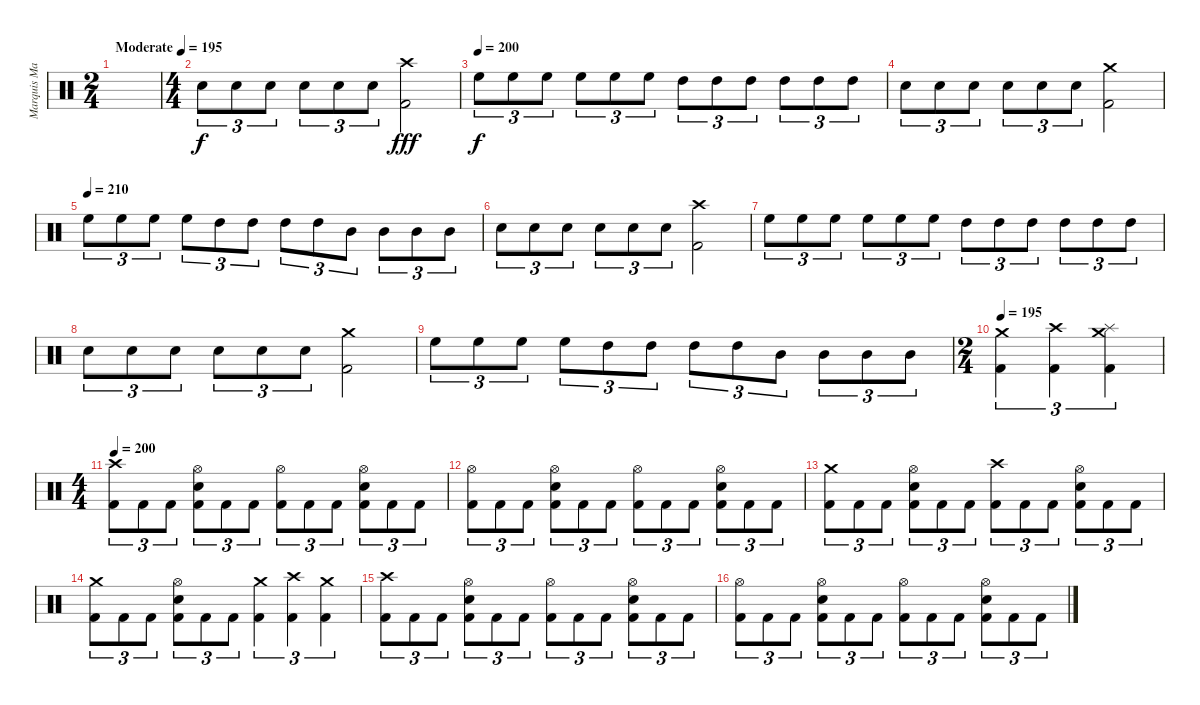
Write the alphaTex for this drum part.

\track ("Marquis Marky (DRUMS)" "Marquis Ma") {instrument percussion}
\staff {score}
\articulation defaults
\ts (2 4)
\tempo (195 "Moderate")
\clef neutral
\ks c
|
\ts (4 4)
"Snare (hit) 2".8{tu (3 2)} "Snare (hit) 2".8{tu (3 2)} "Snare (hit) 2".8{tu (3 2)} "Snare (hit) 2".8{tu (3 2)} "Snare (hit) 2".8{tu (3 2)} "Snare (hit) 2".8{tu (3 2)} ("Crash high (hit)" "Kick (hit) 2").2{dy fff} |
\tempo (200)
"High Floor Tom (hit)".8{tu (3 2) dy f} "High Floor Tom (hit)".8{tu (3 2)} "High Floor Tom (hit)".8{tu (3 2)} "High Floor Tom (hit)".8{tu (3 2)} "High Floor Tom (hit)".8{tu (3 2)} "High Floor Tom (hit)".8{tu (3 2)} "High Tom (hit)".8{tu (3 2)} "High Tom (hit)".8{tu (3 2)} "High Tom (hit)".8{tu (3 2)} "High Tom (hit)".8{tu (3 2)} "High Tom (hit)".8{tu (3 2)} "High Tom (hit)".8{tu (3 2)} |
"Snare (hit) 2".8{tu (3 2)} "Snare (hit) 2".8{tu (3 2)} "Snare (hit) 2".8{tu (3 2)} "Snare (hit) 2".8{tu (3 2)} "Snare (hit) 2".8{tu (3 2)} "Snare (hit) 2".8{tu (3 2)} ("Crash medium (hit)" "Kick (hit) 2").2 |
\tempo (210)
"High Floor Tom (hit)".8{tu (3 2)} "High Floor Tom (hit)".8{tu (3 2)} "High Floor Tom (hit)".8{tu (3 2)} "High Floor Tom (hit)".8{tu (3 2)} "High Tom (hit)".8{tu (3 2)} "High Tom (hit)".8{tu (3 2)} "High Tom (hit)".8{tu (3 2)} "High Tom (hit)".8{tu (3 2)} "Mid Tom (hit)".8{tu (3 2)} "Mid Tom (hit)".8{tu (3 2)} "Mid Tom (hit)".8{tu (3 2)} "Mid Tom (hit)".8{tu (3 2)} |
"Snare (hit) 2".8{tu (3 2)} "Snare (hit) 2".8{tu (3 2)} "Snare (hit) 2".8{tu (3 2)} "Snare (hit) 2".8{tu (3 2)} "Snare (hit) 2".8{tu (3 2)} "Snare (hit) 2".8{tu (3 2)} ("Crash high (hit)" "Kick (hit) 2").2 |
"High Floor Tom (hit)".8{tu (3 2)} "High Floor Tom (hit)".8{tu (3 2)} "High Floor Tom (hit)".8{tu (3 2)} "High Floor Tom (hit)".8{tu (3 2)} "High Floor Tom (hit)".8{tu (3 2)} "High Floor Tom (hit)".8{tu (3 2)} "High Tom (hit)".8{tu (3 2)} "High Tom (hit)".8{tu (3 2)} "High Tom (hit)".8{tu (3 2)} "High Tom (hit)".8{tu (3 2)} "High Tom (hit)".8{tu (3 2)} "High Tom (hit)".8{tu (3 2)} |
"Snare (hit) 2".8{tu (3 2)} "Snare (hit) 2".8{tu (3 2)} "Snare (hit) 2".8{tu (3 2)} "Snare (hit) 2".8{tu (3 2)} "Snare (hit) 2".8{tu (3 2)} "Snare (hit) 2".8{tu (3 2)} ("Crash medium (hit)" "Kick (hit) 2").2 |
"High Floor Tom (hit)".8{tu (3 2)} "High Floor Tom (hit)".8{tu (3 2)} "High Floor Tom (hit)".8{tu (3 2)} "High Floor Tom (hit)".8{tu (3 2)} "High Tom (hit)".8{tu (3 2)} "High Tom (hit)".8{tu (3 2)} "High Tom (hit)".8{tu (3 2)} "High Tom (hit)".8{tu (3 2)} "Mid Tom (hit)".8{tu (3 2)} "Mid Tom (hit)".8{tu (3 2)} "Mid Tom (hit)".8{tu (3 2)} "Mid Tom (hit)".8{tu (3 2)} |
\ts (2 4)
\tempo 195
("Crash medium (hit)" "Kick (hit) 2").4{tu (3 2)} ("Crash high (hit)" "Kick (hit) 2").4{tu (3 2)} ("Crash medium (hit)" "Splash (hit)" "Kick (hit) 2").4{tu (3 2)} |
\ts (4 4)
\tempo 200
("Crash high (hit)" "Kick (hit) 2").8{tu (3 2)} "Kick (hit) 2".8{tu (3 2)} "Kick (hit) 2".8{tu (3 2)} ("Hi-Hat (open)" "Snare (hit) 2" "Kick (hit) 2").8{tu (3 2)} "Kick (hit) 2".8{tu (3 2)} "Kick (hit) 2".8{tu (3 2)} ("Hi-Hat (open)" "Kick (hit) 2").8{tu (3 2)} "Kick (hit) 2".8{tu (3 2)} "Kick (hit) 2".8{tu (3 2)} ("Hi-Hat (open)" "Snare (hit) 2" "Kick (hit) 2").8{tu (3 2)} "Kick (hit) 2".8{tu (3 2)} "Kick (hit) 2".8{tu (3 2)} |
("Hi-Hat (open)" "Kick (hit) 2").8{tu (3 2)} "Kick (hit) 2".8{tu (3 2)} "Kick (hit) 2".8{tu (3 2)} ("Hi-Hat (open)" "Snare (hit) 2" "Kick (hit) 2").8{tu (3 2)} "Kick (hit) 2".8{tu (3 2)} "Kick (hit) 2".8{tu (3 2)} ("Hi-Hat (open)" "Kick (hit) 2").8{tu (3 2)} "Kick (hit) 2".8{tu (3 2)} "Kick (hit) 2".8{tu (3 2)} ("Hi-Hat (open)" "Snare (hit) 2" "Kick (hit) 2").8{tu (3 2)} "Kick (hit) 2".8{tu (3 2)} "Kick (hit) 2".8{tu (3 2)} |
("Crash medium (hit)" "Kick (hit) 2").8{tu (3 2)} "Kick (hit) 2".8{tu (3 2)} "Kick (hit) 2".8{tu (3 2)} ("Hi-Hat (open)" "Snare (hit) 2" "Kick (hit) 2").8{tu (3 2)} "Kick (hit) 2".8{tu (3 2)} "Kick (hit) 2".8{tu (3 2)} ("Crash high (hit)" "Kick (hit) 2").8{tu (3 2)} "Kick (hit) 2".8{tu (3 2)} "Kick (hit) 2".8{tu (3 2)} ("Hi-Hat (open)" "Snare (hit) 2" "Kick (hit) 2").8{tu (3 2)} "Kick (hit) 2".8{tu (3 2)} "Kick (hit) 2".8{tu (3 2)} |
("Crash medium (hit)" "Kick (hit) 2").8{tu (3 2)} "Kick (hit) 2".8{tu (3 2)} "Kick (hit) 2".8{tu (3 2)} ("Hi-Hat (open)" "Snare (hit) 2" "Kick (hit) 2").8{tu (3 2)} "Kick (hit) 2".8{tu (3 2)} "Kick (hit) 2".8{tu (3 2)} ("Crash medium (hit)" "Kick (hit) 2").4{tu (3 2)} ("Crash high (hit)" "Kick (hit) 2").4{tu (3 2)} ("Crash medium (hit)" "Kick (hit) 2").4{tu (3 2)} |
("Crash high (hit)" "Kick (hit) 2").8{tu (3 2)} "Kick (hit) 2".8{tu (3 2)} "Kick (hit) 2".8{tu (3 2)} ("Hi-Hat (open)" "Snare (hit) 2" "Kick (hit) 2").8{tu (3 2)} "Kick (hit) 2".8{tu (3 2)} "Kick (hit) 2".8{tu (3 2)} ("Hi-Hat (open)" "Kick (hit) 2").8{tu (3 2)} "Kick (hit) 2".8{tu (3 2)} "Kick (hit) 2".8{tu (3 2)} ("Hi-Hat (open)" "Snare (hit) 2" "Kick (hit) 2").8{tu (3 2)} "Kick (hit) 2".8{tu (3 2)} "Kick (hit) 2".8{tu (3 2)} |
("Hi-Hat (open)" "Kick (hit) 2").8{tu (3 2)} "Kick (hit) 2".8{tu (3 2)} "Kick (hit) 2".8{tu (3 2)} ("Hi-Hat (open)" "Snare (hit) 2" "Kick (hit) 2").8{tu (3 2)} "Kick (hit) 2".8{tu (3 2)} "Kick (hit) 2".8{tu (3 2)} ("Hi-Hat (open)" "Kick (hit) 2").8{tu (3 2)} "Kick (hit) 2".8{tu (3 2)} "Kick (hit) 2".8{tu (3 2)} ("Hi-Hat (open)" "Snare (hit) 2" "Kick (hit) 2").8{tu (3 2)} "Kick (hit) 2".8{tu (3 2)} "Kick (hit) 2".8{tu (3 2)}
